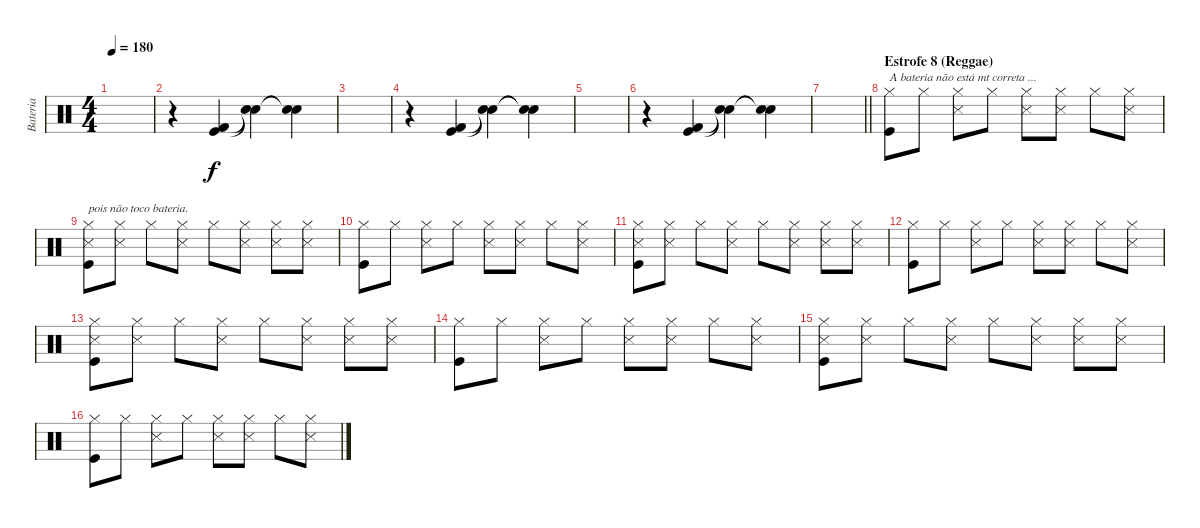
\track ("Bateria" "Bateria") {instrument percussion}
\staff {score}
\articulation defaults
\ts (4 4)
\tempo 180
\clef neutral
\ks c
|
r.4 ("Kick (hit) 2" "Kick (hit)").4 ("Snare (hit)"{t} "Snare (hit)"{t}).4 ("Snare (hit)"{t} "Snare (hit)"{t}).4 |
|
r.4 ("Kick (hit) 2" "Kick (hit)").4 ("Snare (hit)"{t} "Snare (hit)"{t}).4 ("Snare (hit)"{t} "Snare (hit)"{t}).4 |
|
r.4 ("Kick (hit) 2" "Kick (hit)").4 ("Snare (hit)"{t} "Snare (hit)"{t}).4 ("Snare (hit)"{t} "Snare (hit)"{t}).4 |
\barLineRight lightlight
|
\section ("" "Estrofe 8 (Reggae)")
("Hi-Hat (closed)" "Kick (hit)").8{txt "A bateria não está mt correta ..."} "Hi-Hat (closed)".8 ("Hi-Hat (closed)" "Snare (side stick) 3").8 "Hi-Hat (closed)".8 ("Hi-Hat (closed)" "Snare (side stick) 3").8 ("Hi-Hat (closed)" "Snare (side stick) 3").8 "Hi-Hat (closed)".8 ("Hi-Hat (closed)" "Snare (side stick) 3").8 |
("Hi-Hat (closed)" "Snare (side stick) 3" "Kick (hit)").8{txt "pois não toco bateria."} ("Hi-Hat (closed)" "Snare (side stick) 3").8 "Hi-Hat (closed)".8 ("Hi-Hat (closed)" "Snare (side stick) 3").8 "Hi-Hat (closed)".8 ("Hi-Hat (closed)" "Snare (side stick) 3").8 ("Hi-Hat (closed)" "Snare (side stick) 3").8 ("Hi-Hat (closed)" "Snare (side stick) 3").8 |
("Hi-Hat (closed)" "Kick (hit)").8 "Hi-Hat (closed)".8 ("Hi-Hat (closed)" "Snare (side stick) 3").8 "Hi-Hat (closed)".8 ("Hi-Hat (closed)" "Snare (side stick) 3").8 ("Hi-Hat (closed)" "Snare (side stick) 3").8 "Hi-Hat (closed)".8 ("Hi-Hat (closed)" "Snare (side stick) 3").8 |
("Hi-Hat (closed)" "Snare (side stick) 3" "Kick (hit)").8 ("Hi-Hat (closed)" "Snare (side stick) 3").8 "Hi-Hat (closed)".8 ("Hi-Hat (closed)" "Snare (side stick) 3").8 "Hi-Hat (closed)".8 ("Hi-Hat (closed)" "Snare (side stick) 3").8 ("Hi-Hat (closed)" "Snare (side stick) 3").8 ("Hi-Hat (closed)" "Snare (side stick) 3").8 |
("Hi-Hat (closed)" "Kick (hit)").8 "Hi-Hat (closed)".8 ("Hi-Hat (closed)" "Snare (side stick) 3").8 "Hi-Hat (closed)".8 ("Hi-Hat (closed)" "Snare (side stick) 3").8 ("Hi-Hat (closed)" "Snare (side stick) 3").8 "Hi-Hat (closed)".8 ("Hi-Hat (closed)" "Snare (side stick) 3").8 |
("Hi-Hat (closed)" "Snare (side stick) 3" "Kick (hit)").8 ("Hi-Hat (closed)" "Snare (side stick) 3").8 "Hi-Hat (closed)".8 ("Hi-Hat (closed)" "Snare (side stick) 3").8 "Hi-Hat (closed)".8 ("Hi-Hat (closed)" "Snare (side stick) 3").8 ("Hi-Hat (closed)" "Snare (side stick) 3").8 ("Hi-Hat (closed)" "Snare (side stick) 3").8 |
("Hi-Hat (closed)" "Kick (hit)").8 "Hi-Hat (closed)".8 ("Hi-Hat (closed)" "Snare (side stick) 3").8 "Hi-Hat (closed)".8 ("Hi-Hat (closed)" "Snare (side stick) 3").8 ("Hi-Hat (closed)" "Snare (side stick) 3").8 "Hi-Hat (closed)".8 ("Hi-Hat (closed)" "Snare (side stick) 3").8 |
("Hi-Hat (closed)" "Snare (side stick) 3" "Kick (hit)").8 ("Hi-Hat (closed)" "Snare (side stick) 3").8 "Hi-Hat (closed)".8 ("Hi-Hat (closed)" "Snare (side stick) 3").8 "Hi-Hat (closed)".8 ("Hi-Hat (closed)" "Snare (side stick) 3").8 ("Hi-Hat (closed)" "Snare (side stick) 3").8 ("Hi-Hat (closed)" "Snare (side stick) 3").8 |
("Hi-Hat (closed)" "Kick (hit)").8 "Hi-Hat (closed)".8 ("Hi-Hat (closed)" "Snare (side stick) 3").8 "Hi-Hat (closed)".8 ("Hi-Hat (closed)" "Snare (side stick) 3").8 ("Hi-Hat (closed)" "Snare (side stick) 3").8 "Hi-Hat (closed)".8 ("Hi-Hat (closed)" "Snare (side stick) 3").8
